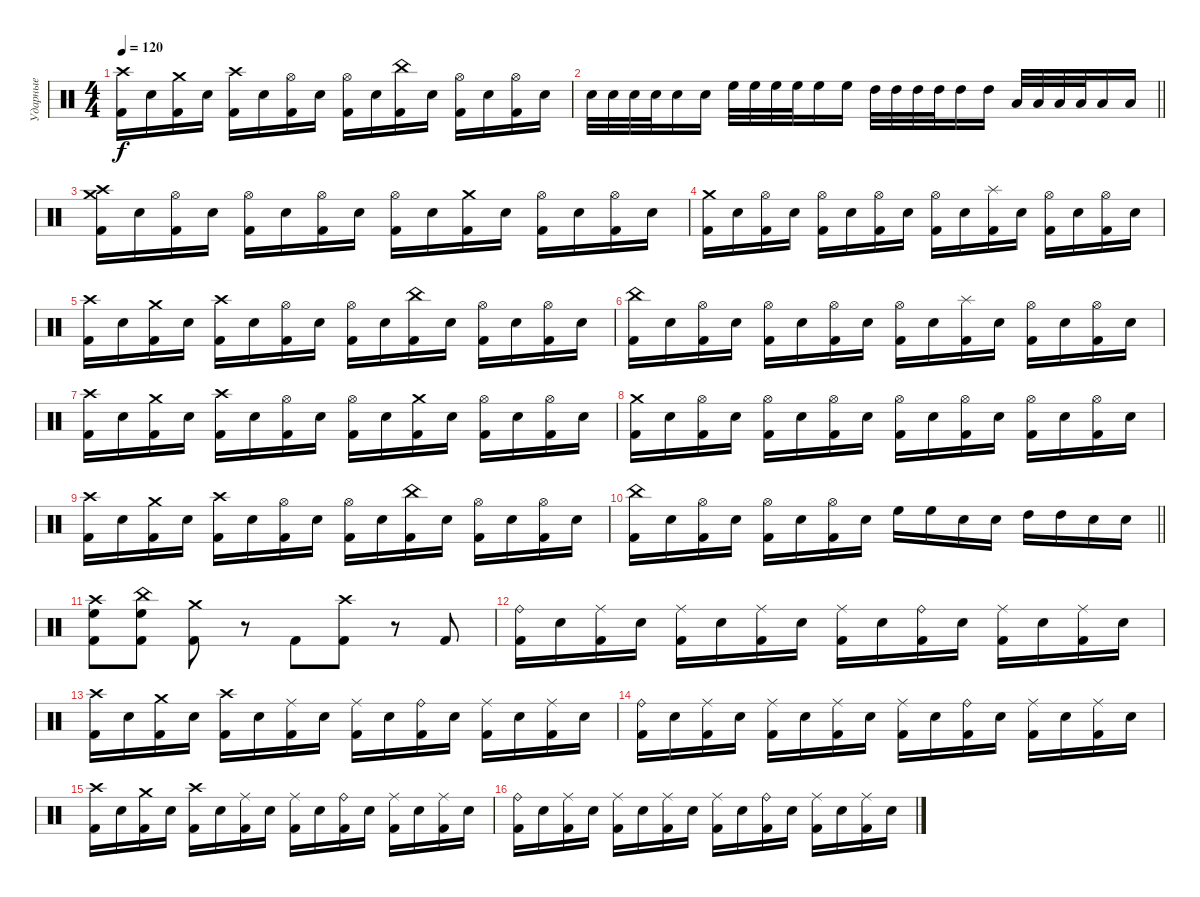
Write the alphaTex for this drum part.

\track ("Ударные" "Ударные") {instrument percussion}
\staff {score}
\articulation defaults
\ts (4 4)
\tempo 120
\clef neutral
\ks c
("Crash high (hit)" "Kick (hit) 2").16{dy f} "Electric Snare (hit)".16 ("Crash medium (hit)" "Kick (hit) 2").16 "Electric Snare (hit)".16 ("Crash high (hit)" "Kick (hit) 2").16 "Electric Snare (hit)".16 ("Hi-Hat (open)" "Kick (hit) 2").16 "Electric Snare (hit)".16 ("Hi-Hat (open)" "Kick (hit) 2").16 "Electric Snare (hit)".16 ("China (hit)" "Kick (hit) 2").16 "Electric Snare (hit)".16 ("Hi-Hat (open)" "Kick (hit) 2").16 "Electric Snare (hit)".16 ("Hi-Hat (open)" "Kick (hit) 2").16 "Electric Snare (hit)".16 |
\barLineRight lightlight "Electric Snare (hit)".32 "Electric Snare (hit)".32 "Electric Snare (hit)".32 "Electric Snare (hit)".32 "Electric Snare (hit)".16 "Electric Snare (hit)".16 "High Floor Tom (hit)".32 "High Floor Tom (hit)".32 "High Floor Tom (hit)".32 "High Floor Tom (hit)".32 "High Floor Tom (hit)".16 "High Floor Tom (hit)".16 "High Tom (hit)".32 "High Tom (hit)".32 "High Tom (hit)".32 "High Tom (hit)".32 "High Tom (hit)".16 "High Tom (hit)".16 "Low Tom (hit)".32 "Low Tom (hit)".32 "Low Tom (hit)".32 "Low Tom (hit)".32 "Low Tom (hit)".16 "Low Tom (hit)".16
|
("Crash high (hit)" "Crash medium (hit)" "Kick (hit) 2").16 "Electric Snare (hit)".16 ("Hi-Hat (open)" "Kick (hit) 2").16 "Electric Snare (hit)".16 ("Hi-Hat (open)" "Kick (hit) 2").16 "Electric Snare (hit)".16 ("Hi-Hat (open)" "Kick (hit) 2").16 "Electric Snare (hit)".16 ("Hi-Hat (open)" "Kick (hit) 2").16 "Electric Snare (hit)".16 ("Crash medium (hit)" "Kick (hit) 2").16 "Electric Snare (hit)".16 ("Hi-Hat (open)" "Kick (hit) 2").16 "Electric Snare (hit)".16 ("Hi-Hat (open)" "Kick (hit) 2").16 "Electric Snare (hit)".16 |
("Crash medium (hit)" "Kick (hit) 2").16 "Electric Snare (hit)".16 ("Hi-Hat (open)" "Kick (hit) 2").16 "Electric Snare (hit)".16 ("Hi-Hat (open)" "Kick (hit) 2").16 "Electric Snare (hit)".16 ("Hi-Hat (open)" "Kick (hit) 2").16 "Electric Snare (hit)".16 ("Hi-Hat (open)" "Kick (hit) 2").16 "Electric Snare (hit)".16 ("Splash (hit)" "Kick (hit) 2").16 "Electric Snare (hit)".16 ("Hi-Hat (open)" "Kick (hit) 2").16 "Electric Snare (hit)".16 ("Hi-Hat (open)" "Kick (hit) 2").16 "Electric Snare (hit)".16 |
("Crash high (hit)" "Kick (hit) 2").16 "Electric Snare (hit)".16 ("Crash medium (hit)" "Kick (hit) 2").16 "Electric Snare (hit)".16 ("Crash high (hit)" "Kick (hit) 2").16 "Electric Snare (hit)".16 ("Hi-Hat (open)" "Kick (hit) 2").16 "Electric Snare (hit)".16 ("Hi-Hat (open)" "Kick (hit) 2").16 "Electric Snare (hit)".16 ("China (hit)" "Kick (hit) 2").16 "Electric Snare (hit)".16 ("Hi-Hat (open)" "Kick (hit) 2").16 "Electric Snare (hit)".16 ("Hi-Hat (open)" "Kick (hit) 2").16 "Electric Snare (hit)".16 |
("China (hit)" "Kick (hit) 2").16 "Electric Snare (hit)".16 ("Hi-Hat (open)" "Kick (hit) 2").16 "Electric Snare (hit)".16 ("Hi-Hat (open)" "Kick (hit) 2").16 "Electric Snare (hit)".16 ("Hi-Hat (open)" "Kick (hit) 2").16 "Electric Snare (hit)".16 ("Hi-Hat (open)" "Kick (hit) 2").16 "Electric Snare (hit)".16 ("Splash (hit)" "Kick (hit) 2").16 "Electric Snare (hit)".16 ("Hi-Hat (open)" "Kick (hit) 2").16 "Electric Snare (hit)".16 ("Hi-Hat (open)" "Kick (hit) 2").16 "Electric Snare (hit)".16 |
("Crash high (hit)" "Kick (hit) 2").16 "Electric Snare (hit)".16 ("Crash medium (hit)" "Kick (hit) 2").16 "Electric Snare (hit)".16 ("Crash high (hit)" "Kick (hit) 2").16 "Electric Snare (hit)".16 ("Hi-Hat (open)" "Kick (hit) 2").16 "Electric Snare (hit)".16 ("Hi-Hat (open)" "Kick (hit) 2").16 "Electric Snare (hit)".16 ("Crash medium (hit)" "Kick (hit) 2").16 "Electric Snare (hit)".16 ("Hi-Hat (open)" "Kick (hit) 2").16 "Electric Snare (hit)".16 ("Hi-Hat (open)" "Kick (hit) 2").16 "Electric Snare (hit)".16 |
("Crash medium (hit)" "Kick (hit) 2").16 "Electric Snare (hit)".16 ("Hi-Hat (open)" "Kick (hit) 2").16 "Electric Snare (hit)".16 ("Hi-Hat (open)" "Kick (hit) 2").16 "Electric Snare (hit)".16 ("Hi-Hat (open)" "Kick (hit) 2").16 "Electric Snare (hit)".16 ("Hi-Hat (open)" "Kick (hit) 2").16 "Electric Snare (hit)".16 ("Hi-Hat (open)" "Kick (hit) 2").16 "Electric Snare (hit)".16 ("Hi-Hat (open)" "Kick (hit) 2").16 "Electric Snare (hit)".16 ("Hi-Hat (open)" "Kick (hit) 2").16 "Electric Snare (hit)".16 |
("Crash high (hit)" "Kick (hit) 2").16 "Electric Snare (hit)".16 ("Crash medium (hit)" "Kick (hit) 2").16 "Electric Snare (hit)".16 ("Crash high (hit)" "Kick (hit) 2").16 "Electric Snare (hit)".16 ("Hi-Hat (open)" "Kick (hit) 2").16 "Electric Snare (hit)".16 ("Hi-Hat (open)" "Kick (hit) 2").16 "Electric Snare (hit)".16 ("China (hit)" "Kick (hit) 2").16 "Electric Snare (hit)".16 ("Hi-Hat (open)" "Kick (hit) 2").16 "Electric Snare (hit)".16 ("Hi-Hat (open)" "Kick (hit) 2").16 "Electric Snare (hit)".16 |
\barLineRight lightlight
("China (hit)" "Kick (hit) 2").16 "Electric Snare (hit)".16 ("Hi-Hat (open)" "Kick (hit) 2").16 "Electric Snare (hit)".16 ("Hi-Hat (open)" "Kick (hit) 2").16 "Electric Snare (hit)".16 ("Hi-Hat (open)" "Kick (hit) 2").16 "Electric Snare (hit)".16 "High Floor Tom (hit)".16 "High Floor Tom (hit)".16 "Electric Snare (hit)".16 "Electric Snare (hit)".16 "High Tom (hit)".16 "High Tom (hit)".16 "Electric Snare (hit)".16 "Electric Snare (hit)".16 |
("Crash high (hit)" "High Floor Tom (hit)" "Kick (hit) 2").8 ("China (hit)" "High Floor Tom (hit)" "Kick (hit) 2").8 ("Crash medium (hit)" "Kick (hit) 2").8 r.8 "Kick (hit) 2".8 ("Crash high (hit)" "Kick (hit) 2").8 r.8 "Kick (hit) 2".8 |
("Ride (bell)" "Kick (hit) 2").16 "Electric Snare (hit)".16 ("Ride (middle)" "Kick (hit) 2").16 "Electric Snare (hit)".16 ("Ride (middle)" "Kick (hit) 2").16 "Electric Snare (hit)".16 ("Ride (middle)" "Kick (hit) 2").16 "Electric Snare (hit)".16 ("Ride (middle)" "Kick (hit) 2").16 "Electric Snare (hit)".16 ("Ride (bell)" "Kick (hit) 2").16 "Electric Snare (hit)".16 ("Ride (middle)" "Kick (hit) 2").16 "Electric Snare (hit)".16 ("Ride (middle)" "Kick (hit) 2").16 "Electric Snare (hit)".16 |
("Crash high (hit)" "Kick (hit) 2").16 "Electric Snare (hit)".16 ("Crash medium (hit)" "Kick (hit) 2").16 "Electric Snare (hit)".16 ("Crash high (hit)" "Kick (hit) 2").16 "Electric Snare (hit)".16 ("Ride (middle)" "Kick (hit) 2").16 "Electric Snare (hit)".16 ("Ride (middle)" "Kick (hit) 2").16 "Electric Snare (hit)".16 ("Ride (bell)" "Kick (hit) 2").16 "Electric Snare (hit)".16 ("Ride (middle)" "Kick (hit) 2").16 "Electric Snare (hit)".16 ("Ride (middle)" "Kick (hit) 2").16 "Electric Snare (hit)".16 |
("Ride (bell)" "Kick (hit) 2").16 "Electric Snare (hit)".16 ("Ride (middle)" "Kick (hit) 2").16 "Electric Snare (hit)".16 ("Ride (middle)" "Kick (hit) 2").16 "Electric Snare (hit)".16 ("Ride (middle)" "Kick (hit) 2").16 "Electric Snare (hit)".16 ("Ride (middle)" "Kick (hit) 2").16 "Electric Snare (hit)".16 ("Ride (bell)" "Kick (hit) 2").16 "Electric Snare (hit)".16 ("Ride (middle)" "Kick (hit) 2").16 "Electric Snare (hit)".16 ("Ride (middle)" "Kick (hit) 2").16 "Electric Snare (hit)".16 |
("Crash high (hit)" "Kick (hit) 2").16 "Electric Snare (hit)".16 ("Crash medium (hit)" "Kick (hit) 2").16 "Electric Snare (hit)".16 ("Crash high (hit)" "Kick (hit) 2").16 "Electric Snare (hit)".16 ("Ride (middle)" "Kick (hit) 2").16 "Electric Snare (hit)".16 ("Ride (middle)" "Kick (hit) 2").16 "Electric Snare (hit)".16 ("Ride (bell)" "Kick (hit) 2").16 "Electric Snare (hit)".16 ("Ride (middle)" "Kick (hit) 2").16 "Electric Snare (hit)".16 ("Ride (middle)" "Kick (hit) 2").16 "Electric Snare (hit)".16 |
("Ride (bell)" "Kick (hit) 2").16 "Electric Snare (hit)".16 ("Ride (middle)" "Kick (hit) 2").16 "Electric Snare (hit)".16 ("Ride (middle)" "Kick (hit) 2").16 "Electric Snare (hit)".16 ("Ride (middle)" "Kick (hit) 2").16 "Electric Snare (hit)".16 ("Ride (middle)" "Kick (hit) 2").16 "Electric Snare (hit)".16 ("Ride (bell)" "Kick (hit) 2").16 "Electric Snare (hit)".16 ("Ride (middle)" "Kick (hit) 2").16 "Electric Snare (hit)".16 ("Ride (middle)" "Kick (hit) 2").16 "Electric Snare (hit)".16
